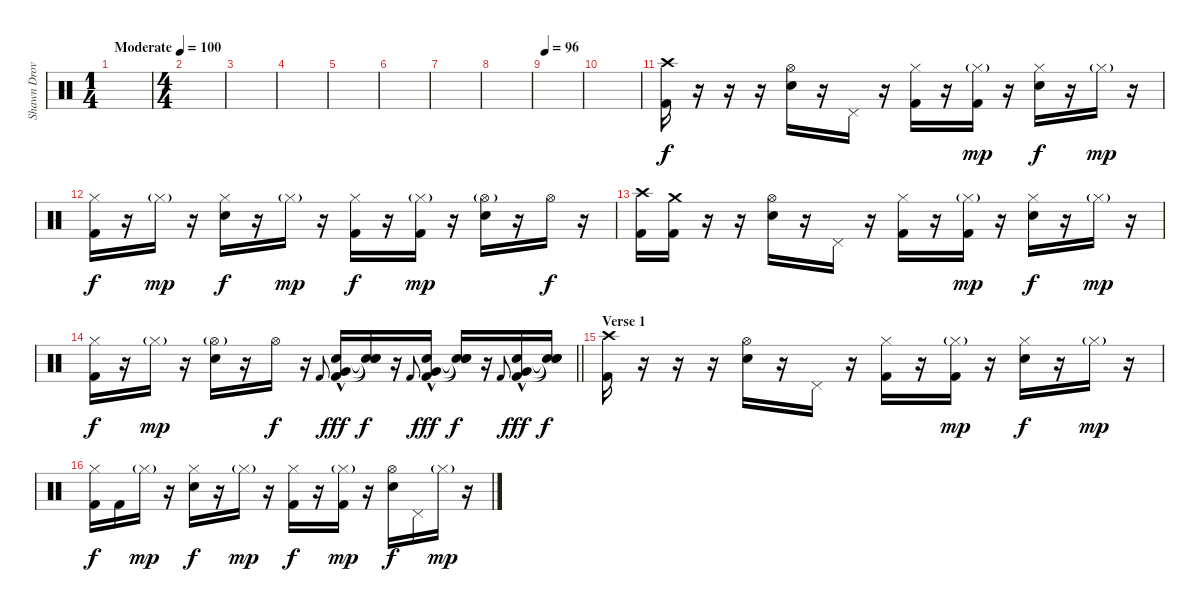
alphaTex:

\track ("Shawn Drover" "Shawn Drov") {instrument percussion}
\staff {score}
\articulation defaults
\ts (1 4)
\tempo (100 "Moderate")
\clef neutral
\ks c
|
\ts (4 4)
|
|
|
|
|
|
|
\tempo 96
|
|
("Crash high (hit)" "Kick (hit) 2").16 r.16 r.16 r.16 ("Hi-Hat (open)" "Snare (hit) 2").16 r.16 "Pedal Hi-Hat (hit)".16 r.16 ("Hi-Hat (closed)" "Kick (hit) 2").16 r.16 ("Hi-Hat (closed)"{g} "Kick (hit) 2").16{dy mp} r.16 ("Hi-Hat (closed)" "Snare (hit) 2").16{dy f} r.16 "Hi-Hat (closed)"{g}.16{dy mp} r.16 |
("Hi-Hat (closed)" "Kick (hit) 2").16{dy f} r.16 "Hi-Hat (closed)"{g}.16{dy mp} r.16 ("Hi-Hat (closed)" "Snare (hit) 2").16{dy f} r.16 "Hi-Hat (closed)"{g}.16{dy mp} r.16 ("Hi-Hat (closed)" "Kick (hit) 2").16{dy f} r.16 ("Hi-Hat (closed)"{g} "Kick (hit) 2").16{dy mp} r.16 ("Hi-Hat (open)"{g} "Snare (hit) 2").16 r.16 "Hi-Hat (open)".16{dy f} r.16 |
("Crash high (hit)" "Kick (hit) 2").16 ("Crash medium (hit)" "Kick (hit) 2").16 r.16 r.16 ("Hi-Hat (open)" "Snare (hit) 2").16 r.16 "Pedal Hi-Hat (hit)".16 r.16 ("Hi-Hat (closed)" "Kick (hit) 2").16 r.16 ("Hi-Hat (closed)"{g} "Kick (hit) 2").16{dy mp} r.16 ("Hi-Hat (closed)" "Snare (hit) 2").16{dy f} r.16 "Hi-Hat (closed)"{g}.16{dy mp} r.16 |
\barLineRight lightlight
("Hi-Hat (closed)" "Kick (hit) 2").16{dy f} r.16 "Hi-Hat (closed)"{g}.16{dy mp} r.16 ("Hi-Hat (open)"{g} "Snare (hit) 2").16 r.16 "Hi-Hat (open)".16{dy f} r.16 "Kick (hit) 2".8{gr onbeat} ("Very Low Tom (hit)" "Snare (hit) 2"{hac} "Kick (hit) 2").16{dy fff} ("Snare (hit)"{t} "Snare (hit)"{t} "Snare (hit)"{t}).16{dy f} r.16 "Kick (hit) 2".8{gr onbeat} ("Very Low Tom (hit)" "Snare (hit) 2"{hac} "Kick (hit) 2").16{dy fff} ("Snare (hit)"{t} "Snare (hit)"{t} "Snare (hit)"{t}).16{dy f} r.16 "Kick (hit) 2".8{gr onbeat} ("Very Low Tom (hit)" "Snare (hit) 2"{hac} "Kick (hit) 2").16{dy fff} ("Snare (hit)"{t} "Snare (hit)"{t} "Snare (hit)"{t}).16{dy f} |
\section ("" "Verse 1")
("Crash high (hit)" "Kick (hit) 2").16 r.16 r.16 r.16 ("Hi-Hat (open)" "Snare (hit) 2").16 r.16 "Pedal Hi-Hat (hit)".16 r.16 ("Hi-Hat (closed)" "Kick (hit) 2").16 r.16 ("Hi-Hat (closed)"{g} "Kick (hit) 2").16{dy mp} r.16 ("Hi-Hat (closed)" "Snare (hit) 2").16{dy f} r.16 "Hi-Hat (closed)"{g}.16{dy mp} r.16 |
("Hi-Hat (closed)" "Kick (hit) 2").16{dy f} "Kick (hit) 2".16 "Hi-Hat (closed)"{g}.16{dy mp} r.16 ("Hi-Hat (closed)" "Snare (hit) 2").16{dy f} r.16 "Hi-Hat (closed)"{g}.16{dy mp} r.16 ("Hi-Hat (closed)" "Kick (hit) 2").16{dy f} r.16 ("Hi-Hat (closed)"{g} "Kick (hit) 2").16{dy mp} r.16 ("Hi-Hat (open)" "Snare (hit) 2").16{dy f} "Pedal Hi-Hat (hit)".16 "Hi-Hat (closed)"{g}.16{dy mp} r.16
